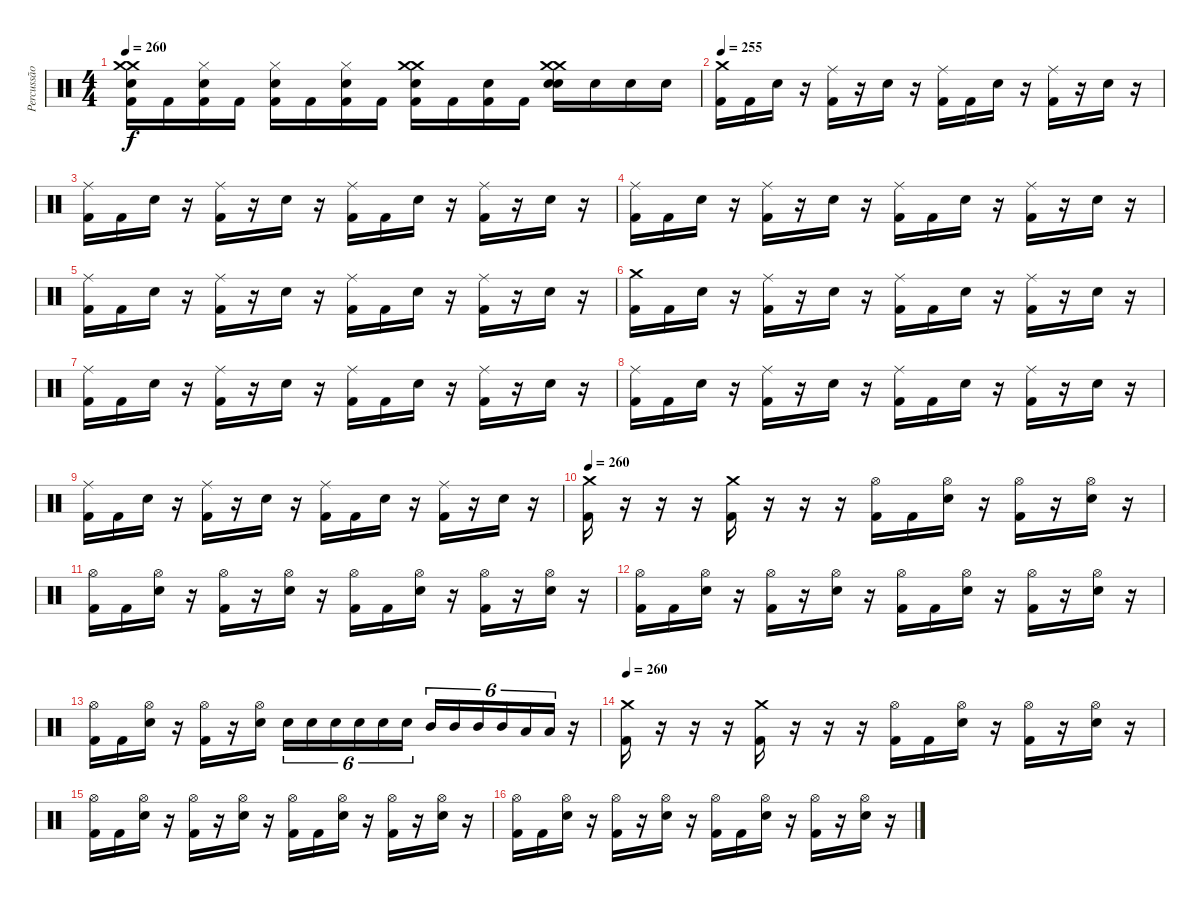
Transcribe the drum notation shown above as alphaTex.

\track ("Percussão" "Percussão") {instrument percussion}
\staff {score}
\articulation defaults
\ts (4 4)
\tempo 260
\clef neutral
\ks c
("Crash medium (hit)" "Crash medium (hit)" "Snare (hit) 2" "Kick (hit) 2").16{dy f} "Kick (hit) 2".16 ("Hi-Hat (closed)" "Snare (hit) 2" "Kick (hit) 2").16 "Kick (hit) 2".16 ("Hi-Hat (closed)" "Snare (hit) 2" "Kick (hit) 2").16 "Kick (hit) 2".16 ("Hi-Hat (closed)" "Snare (hit) 2" "Kick (hit) 2").16 "Kick (hit) 2".16 ("Crash medium (hit)" "Crash medium (hit)" "Snare (hit) 2" "Kick (hit) 2").16 "Kick (hit) 2".16 ("Snare (hit) 2" "Kick (hit) 2").16 "Kick (hit) 2".16 ("Crash medium (hit)" "Crash medium (hit)" "Snare (hit) 2" "Snare (hit) 2").16 "Snare (hit) 2".16 "Snare (hit) 2".16 "Snare (hit) 2".16 |
\tempo 255
("Crash medium (hit)" "Kick (hit) 2").16 "Kick (hit) 2".16 "Snare (hit) 2".16 r.16 ("Ride (middle)" "Kick (hit) 2").16 r.16 "Snare (hit) 2".16 r.16 ("Ride (middle)" "Kick (hit) 2").16 "Kick (hit) 2".16 "Snare (hit) 2".16 r.16 ("Ride (middle)" "Kick (hit) 2").16 r.16 "Snare (hit) 2".16 r.16 |
("Ride (middle)" "Kick (hit) 2").16 "Kick (hit) 2".16 "Snare (hit) 2".16 r.16 ("Ride (middle)" "Kick (hit) 2").16 r.16 "Snare (hit) 2".16 r.16 ("Ride (middle)" "Kick (hit) 2").16 "Kick (hit) 2".16 "Snare (hit) 2".16 r.16 ("Ride (middle)" "Kick (hit) 2").16 r.16 "Snare (hit) 2".16 r.16 |
("Ride (middle)" "Kick (hit) 2").16 "Kick (hit) 2".16 "Snare (hit) 2".16 r.16 ("Ride (middle)" "Kick (hit) 2").16 r.16 "Snare (hit) 2".16 r.16 ("Ride (middle)" "Kick (hit) 2").16 "Kick (hit) 2".16 "Snare (hit) 2".16 r.16 ("Ride (middle)" "Kick (hit) 2").16 r.16 "Snare (hit) 2".16 r.16 |
("Ride (middle)" "Kick (hit) 2").16 "Kick (hit) 2".16 "Snare (hit) 2".16 r.16 ("Ride (middle)" "Kick (hit) 2").16 r.16 "Snare (hit) 2".16 r.16 ("Ride (middle)" "Kick (hit) 2").16 "Kick (hit) 2".16 "Snare (hit) 2".16 r.16 ("Ride (middle)" "Kick (hit) 2").16 r.16 "Snare (hit) 2".16 r.16 |
("Crash medium (hit)" "Kick (hit) 2").16 "Kick (hit) 2".16 "Snare (hit) 2".16 r.16 ("Ride (middle)" "Kick (hit) 2").16 r.16 "Snare (hit) 2".16 r.16 ("Ride (middle)" "Kick (hit) 2").16 "Kick (hit) 2".16 "Snare (hit) 2".16 r.16 ("Ride (middle)" "Kick (hit) 2").16 r.16 "Snare (hit) 2".16 r.16 |
("Ride (middle)" "Kick (hit) 2").16 "Kick (hit) 2".16 "Snare (hit) 2".16 r.16 ("Ride (middle)" "Kick (hit) 2").16 r.16 "Snare (hit) 2".16 r.16 ("Ride (middle)" "Kick (hit) 2").16 "Kick (hit) 2".16 "Snare (hit) 2".16 r.16 ("Ride (middle)" "Kick (hit) 2").16 r.16 "Snare (hit) 2".16 r.16 |
("Ride (middle)" "Kick (hit) 2").16 "Kick (hit) 2".16 "Snare (hit) 2".16 r.16 ("Ride (middle)" "Kick (hit) 2").16 r.16 "Snare (hit) 2".16 r.16 ("Ride (middle)" "Kick (hit) 2").16 "Kick (hit) 2".16 "Snare (hit) 2".16 r.16 ("Ride (middle)" "Kick (hit) 2").16 r.16 "Snare (hit) 2".16 r.16 |
("Ride (middle)" "Kick (hit) 2").16 "Kick (hit) 2".16 "Snare (hit) 2".16 r.16 ("Ride (middle)" "Kick (hit) 2").16 r.16 "Snare (hit) 2".16 r.16 ("Ride (middle)" "Kick (hit) 2").16 "Kick (hit) 2".16 "Snare (hit) 2".16 r.16 ("Ride (middle)" "Kick (hit) 2").16 r.16 "Snare (hit) 2".16 r.16 |
\tempo 260
("Crash medium (hit)" "Kick (hit) 2").16 r.16 r.16 r.16 ("Crash medium (hit)" "Kick (hit) 2").16 r.16 r.16 r.16 ("Hi-Hat (open)" "Kick (hit) 2").16 "Kick (hit) 2".16 ("Hi-Hat (open)" "Snare (hit) 2").16 r.16 ("Hi-Hat (open)" "Kick (hit) 2").16 r.16 ("Hi-Hat (open)" "Snare (hit) 2").16 r.16 |
("Hi-Hat (open)" "Kick (hit) 2").16 "Kick (hit) 2".16 ("Hi-Hat (open)" "Snare (hit) 2").16 r.16 ("Hi-Hat (open)" "Kick (hit) 2").16 r.16 ("Hi-Hat (open)" "Snare (hit) 2").16 r.16 ("Hi-Hat (open)" "Kick (hit) 2").16 "Kick (hit) 2".16 ("Hi-Hat (open)" "Snare (hit) 2").16 r.16 ("Hi-Hat (open)" "Kick (hit) 2").16 r.16 ("Hi-Hat (open)" "Snare (hit) 2").16 r.16 |
("Hi-Hat (open)" "Kick (hit) 2").16 "Kick (hit) 2".16 ("Hi-Hat (open)" "Snare (hit) 2").16 r.16 ("Hi-Hat (open)" "Kick (hit) 2").16 r.16 ("Hi-Hat (open)" "Snare (hit) 2").16 r.16 ("Hi-Hat (open)" "Kick (hit) 2").16 "Kick (hit) 2".16 ("Hi-Hat (open)" "Snare (hit) 2").16 r.16 ("Hi-Hat (open)" "Kick (hit) 2").16 r.16 ("Hi-Hat (open)" "Snare (hit) 2").16 r.16 |
("Hi-Hat (open)" "Kick (hit) 2").16 "Kick (hit) 2".16 ("Hi-Hat (open)" "Snare (hit) 2").16 r.16 ("Hi-Hat (open)" "Kick (hit) 2").16 r.16 ("Hi-Hat (open)" "Snare (hit) 2").16 "Snare (hit) 2".16{tu (6 4)} "Snare (hit) 2".16{tu (6 4)} "Snare (hit) 2".16{tu (6 4)} "Snare (hit) 2".16{tu (6 4)} "Snare (hit) 2".16{tu (6 4)} "Snare (hit) 2".16{tu (6 4)} "Mid Tom (hit)".16{tu (6 4)} "Mid Tom (hit)".16{tu (6 4)} "Mid Tom (hit)".16{tu (6 4)} "Mid Tom (hit)".16{tu (6 4)} "Low Tom (hit)".16{tu (6 4)} "Low Tom (hit)".16{tu (6 4)} r.16 |
\tempo 260
("Crash medium (hit)" "Kick (hit) 2").16 r.16 r.16 r.16 ("Crash medium (hit)" "Kick (hit) 2").16 r.16 r.16 r.16 ("Hi-Hat (open)" "Kick (hit) 2").16 "Kick (hit) 2".16 ("Hi-Hat (open)" "Snare (hit) 2").16 r.16 ("Hi-Hat (open)" "Kick (hit) 2").16 r.16 ("Hi-Hat (open)" "Snare (hit) 2").16 r.16 |
("Hi-Hat (open)" "Kick (hit) 2").16 "Kick (hit) 2".16 ("Hi-Hat (open)" "Snare (hit) 2").16 r.16 ("Hi-Hat (open)" "Kick (hit) 2").16 r.16 ("Hi-Hat (open)" "Snare (hit) 2").16 r.16 ("Hi-Hat (open)" "Kick (hit) 2").16 "Kick (hit) 2".16 ("Hi-Hat (open)" "Snare (hit) 2").16 r.16 ("Hi-Hat (open)" "Kick (hit) 2").16 r.16 ("Hi-Hat (open)" "Snare (hit) 2").16 r.16 |
("Hi-Hat (open)" "Kick (hit) 2").16 "Kick (hit) 2".16 ("Hi-Hat (open)" "Snare (hit) 2").16 r.16 ("Hi-Hat (open)" "Kick (hit) 2").16 r.16 ("Hi-Hat (open)" "Snare (hit) 2").16 r.16 ("Hi-Hat (open)" "Kick (hit) 2").16 "Kick (hit) 2".16 ("Hi-Hat (open)" "Snare (hit) 2").16 r.16 ("Hi-Hat (open)" "Kick (hit) 2").16 r.16 ("Hi-Hat (open)" "Snare (hit) 2").16 r.16
